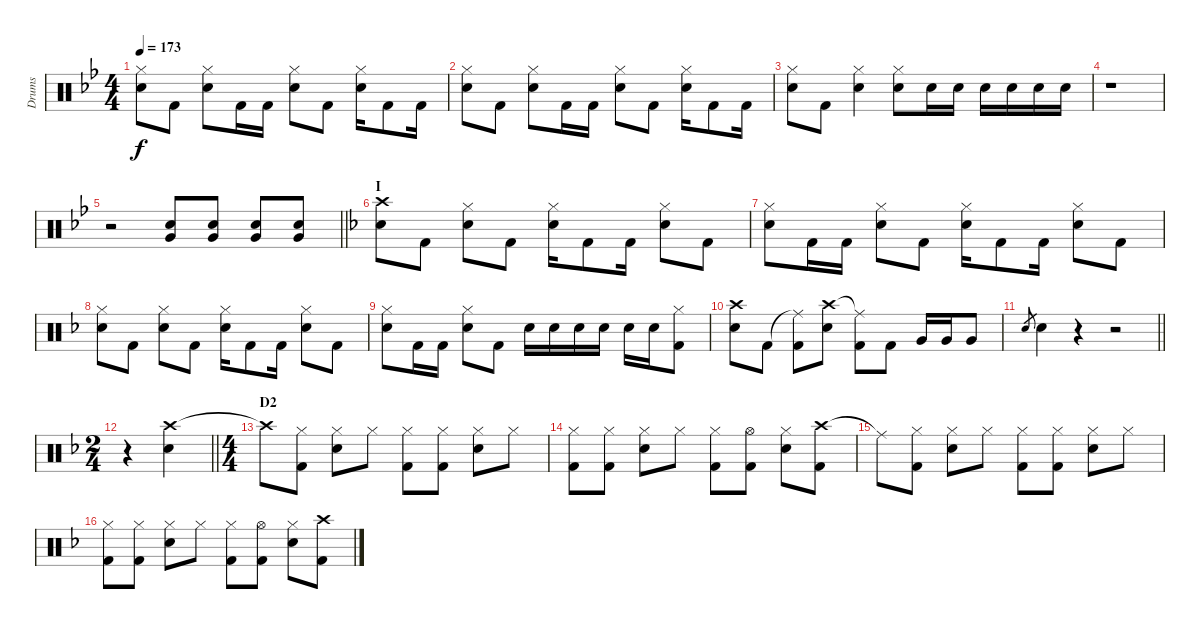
\track ("Drums" "Drums") {instrument percussion}
\staff {score}
\articulation defaults
\ts (4 4)
\tempo 173
\clef neutral
\ks gminor
("Hi-Hat (closed)" "Snare (hit) 2").8{dy f} "Kick (hit) 2".8 ("Hi-Hat (closed)" "Snare (hit) 2").8 "Kick (hit) 2".16 "Kick (hit) 2".16 ("Hi-Hat (closed)" "Snare (hit) 2").8 "Kick (hit) 2".8 ("Hi-Hat (closed)" "Snare (hit) 2").16 "Kick (hit) 2".8 "Kick (hit) 2".16 |
("Hi-Hat (closed)" "Snare (hit) 2").8 "Kick (hit) 2".8 ("Hi-Hat (closed)" "Snare (hit) 2").8 "Kick (hit) 2".16 "Kick (hit) 2".16 ("Hi-Hat (closed)" "Snare (hit) 2").8 "Kick (hit) 2".8 ("Hi-Hat (closed)" "Snare (hit) 2").16 "Kick (hit) 2".8 "Kick (hit) 2".16 |
("Hi-Hat (closed)" "Snare (hit) 2").8 "Kick (hit) 2".8 ("Hi-Hat (closed)" "Snare (hit) 2").4 ("Hi-Hat (closed)" "Snare (hit) 2").8 "Snare (hit) 2".16 "Snare (hit) 2".16 "Snare (hit) 2".16 "Snare (hit) 2".16 "Snare (hit) 2".16 "Snare (hit) 2".16 |
r.1 |
\barLineRight lightlight
r.2 ("Snare (hit) 2" "Very Low Tom (hit)").8 ("Snare (hit) 2" "Very Low Tom (hit)").8 ("Snare (hit) 2" "Very Low Tom (hit)").8 ("Snare (hit) 2" "Very Low Tom (hit)").8 |
\section ("" "I")
\ks dminor
("Crash high (hit)" "Snare (hit) 2").8 "Kick (hit) 2".8 ("Hi-Hat (closed)" "Snare (hit) 2").8 "Kick (hit) 2".8 ("Hi-Hat (closed)" "Snare (hit) 2").16 "Kick (hit) 2".8 "Kick (hit) 2".16 ("Hi-Hat (closed)" "Snare (hit) 2").8 "Kick (hit) 2".8 |
("Hi-Hat (closed)" "Snare (hit) 2").8 "Kick (hit) 2".16 "Kick (hit) 2".16 ("Hi-Hat (closed)" "Snare (hit) 2").8 "Kick (hit) 2".8 ("Hi-Hat (closed)" "Snare (hit) 2").16 "Kick (hit) 2".8 "Kick (hit) 2".16 ("Hi-Hat (closed)" "Snare (hit) 2").8 "Kick (hit) 2".8 |
("Hi-Hat (closed)" "Snare (hit) 2").8 "Kick (hit) 2".8 ("Hi-Hat (closed)" "Snare (hit) 2").8 "Kick (hit) 2".8 ("Hi-Hat (closed)" "Snare (hit) 2").16 "Kick (hit) 2".8 "Kick (hit) 2".16 ("Hi-Hat (closed)" "Snare (hit) 2").8 "Kick (hit) 2".8 |
("Hi-Hat (closed)" "Snare (hit) 2").8 "Kick (hit) 2".16 "Kick (hit) 2".16 ("Hi-Hat (closed)" "Snare (hit) 2").8 "Kick (hit) 2".8 "Snare (hit) 2".16 "Snare (hit) 2".16 "Snare (hit) 2".16 "Snare (hit) 2".16 "Snare (hit) 2".16 "Snare (hit) 2".16 ("Hi-Hat (closed)" "Kick (hit) 2").8 |
("Crash high (hit)" "Snare (hit) 2").8 "Kick (hit) 2".8 ("Ride (middle)"{t} "Kick (hit) 2").8 ("Crash high (hit)" "Snare (hit) 2").8 ("Ride (middle)"{t} "Kick (hit) 2").8 "Kick (hit) 2".8 "Very Low Tom (hit)".16 "Very Low Tom (hit)".16 "Very Low Tom (hit)".8 |
\barLineRight lightlight "Snare (hit) 2".8{gr} "Snare (hit) 2".4
r.4 r.2 |
\ts (2 4)
\barLineRight lightlight
r.4 ("Crash high (hit)" "Snare (hit) 2").4 |
\ts (4 4)
\section ("" "D2")
"Crash high (hit)"{t}.8 ("Hi-Hat (closed)" "Kick (hit) 2").8 ("Hi-Hat (closed)" "Snare (hit) 2").8 "Hi-Hat (closed)".8 ("Hi-Hat (closed)" "Kick (hit) 2").8 ("Hi-Hat (closed)" "Kick (hit) 2").8 ("Hi-Hat (closed)" "Snare (hit) 2").8 "Hi-Hat (closed)".8 |
("Hi-Hat (closed)" "Kick (hit) 2").8 ("Hi-Hat (closed)" "Kick (hit) 2").8 ("Hi-Hat (closed)" "Snare (hit) 2").8 "Hi-Hat (closed)".8 ("Hi-Hat (closed)" "Kick (hit) 2").8 ("Hi-Hat (open)" "Kick (hit) 2").8 ("Hi-Hat (closed)" "Snare (hit) 2").8 ("Crash high (hit)" "Kick (hit) 2").8 |
"Ride (middle)"{t}.8 ("Hi-Hat (closed)" "Kick (hit) 2").8 ("Hi-Hat (closed)" "Snare (hit) 2").8 "Hi-Hat (closed)".8 ("Hi-Hat (closed)" "Kick (hit) 2").8 ("Hi-Hat (closed)" "Kick (hit) 2").8 ("Hi-Hat (closed)" "Snare (hit) 2").8 "Hi-Hat (closed)".8 |
("Hi-Hat (closed)" "Kick (hit) 2").8 ("Hi-Hat (closed)" "Kick (hit) 2").8 ("Hi-Hat (closed)" "Snare (hit) 2").8 "Hi-Hat (closed)".8 ("Hi-Hat (closed)" "Kick (hit) 2").8 ("Hi-Hat (open)" "Kick (hit) 2").8 ("Hi-Hat (closed)" "Snare (hit) 2").8 ("Crash high (hit)" "Kick (hit) 2").8
